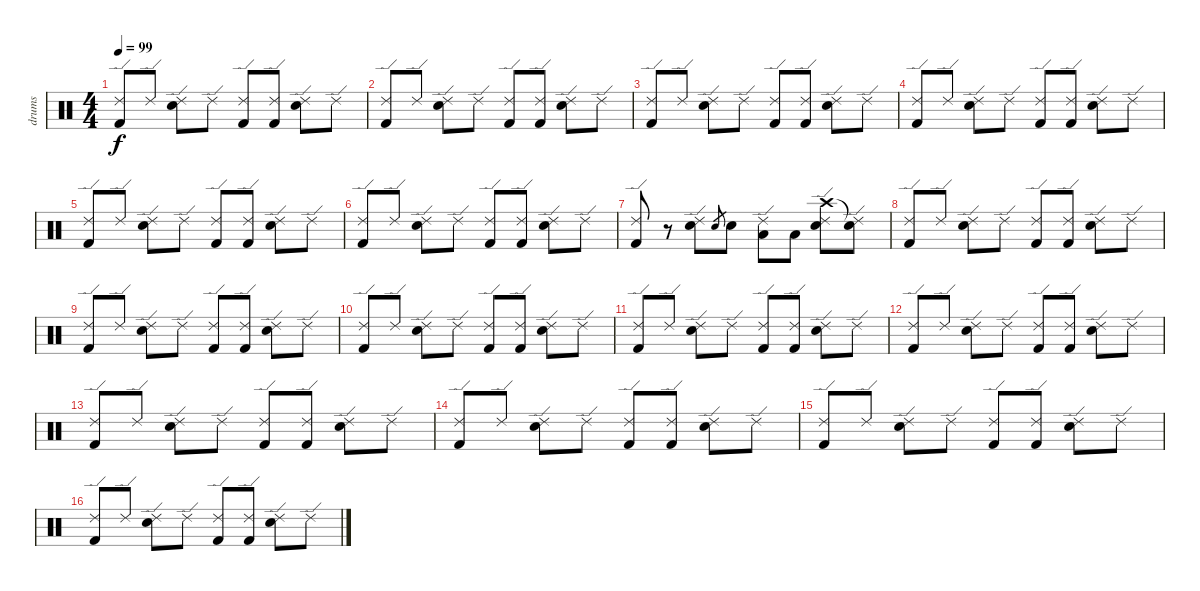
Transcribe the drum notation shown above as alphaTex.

\track ("drums" "drums") {instrument percussion}
\staff {score}
\articulation defaults
\ts (4 4)
\tempo 99
\clef neutral
\ks c
("Ride (edge) 2" "Kick (hit) 2").8{dy f} "Ride (edge) 2".8 ("Ride (edge) 2" "Snare (hit) 2").8 "Ride (edge) 2".8 ("Ride (edge) 2" "Kick (hit) 2").8 ("Ride (edge) 2" "Kick (hit) 2").8 ("Ride (edge) 2" "Snare (hit) 2").8 "Ride (edge) 2".8 |
("Ride (edge) 2" "Kick (hit) 2").8 "Ride (edge) 2".8 ("Ride (edge) 2" "Snare (hit) 2").8 "Ride (edge) 2".8 ("Ride (edge) 2" "Kick (hit) 2").8 ("Ride (edge) 2" "Kick (hit) 2").8 ("Ride (edge) 2" "Snare (hit) 2").8 "Ride (edge) 2".8 |
("Ride (edge) 2" "Kick (hit) 2").8 "Ride (edge) 2".8 ("Ride (edge) 2" "Snare (hit) 2").8 "Ride (edge) 2".8 ("Ride (edge) 2" "Kick (hit) 2").8 ("Ride (edge) 2" "Kick (hit) 2").8 ("Ride (edge) 2" "Snare (hit) 2").8 "Ride (edge) 2".8 |
("Ride (edge) 2" "Kick (hit) 2").8 "Ride (edge) 2".8 ("Ride (edge) 2" "Snare (hit) 2").8 "Ride (edge) 2".8 ("Ride (edge) 2" "Kick (hit) 2").8 ("Ride (edge) 2" "Kick (hit) 2").8 ("Ride (edge) 2" "Snare (hit) 2").8 "Ride (edge) 2".8 |
("Ride (edge) 2" "Kick (hit) 2").8 "Ride (edge) 2".8 ("Ride (edge) 2" "Snare (hit) 2").8 "Ride (edge) 2".8 ("Ride (edge) 2" "Kick (hit) 2").8 ("Ride (edge) 2" "Kick (hit) 2").8 ("Ride (edge) 2" "Snare (hit) 2").8 "Ride (edge) 2".8 |
("Ride (edge) 2" "Kick (hit) 2").8 "Ride (edge) 2".8 ("Ride (edge) 2" "Snare (hit) 2").8 "Ride (edge) 2".8 ("Ride (edge) 2" "Kick (hit) 2").8 ("Ride (edge) 2" "Kick (hit) 2").8 ("Ride (edge) 2" "Snare (hit) 2").8 "Ride (edge) 2".8 |
("Ride (edge) 2" "Kick (hit) 2").8 r.8 ("Ride (edge) 2" "Snare (hit) 2").8 "Snare (hit) 2".8{gr} "Snare (hit) 2".8 ("Ride (edge) 2" "Low Tom (hit)").8 "Low Floor Tom (hit)".8 ("Ride (edge) 2" "Crash high (hit)" "Snare (hit) 2").8 ("Ride (edge) 2" "Snare (hit)"{t}).8 |
("Ride (edge) 2" "Kick (hit) 2").8 "Ride (edge) 2".8 ("Ride (edge) 2" "Snare (hit) 2").8 "Ride (edge) 2".8 ("Ride (edge) 2" "Kick (hit) 2").8 ("Ride (edge) 2" "Kick (hit) 2").8 ("Ride (edge) 2" "Snare (hit) 2").8 "Ride (edge) 2".8 |
("Ride (edge) 2" "Kick (hit) 2").8 "Ride (edge) 2".8 ("Ride (edge) 2" "Snare (hit) 2").8 "Ride (edge) 2".8 ("Ride (edge) 2" "Kick (hit) 2").8 ("Ride (edge) 2" "Kick (hit) 2").8 ("Ride (edge) 2" "Snare (hit) 2").8 "Ride (edge) 2".8 |
("Ride (edge) 2" "Kick (hit) 2").8 "Ride (edge) 2".8 ("Ride (edge) 2" "Snare (hit) 2").8 "Ride (edge) 2".8 ("Ride (edge) 2" "Kick (hit) 2").8 ("Ride (edge) 2" "Kick (hit) 2").8 ("Ride (edge) 2" "Snare (hit) 2").8 "Ride (edge) 2".8 |
("Ride (edge) 2" "Kick (hit) 2").8 "Ride (edge) 2".8 ("Ride (edge) 2" "Snare (hit) 2").8 "Ride (edge) 2".8 ("Ride (edge) 2" "Kick (hit) 2").8 ("Ride (edge) 2" "Kick (hit) 2").8 ("Ride (edge) 2" "Snare (hit) 2").8 "Ride (edge) 2".8 |
("Ride (edge) 2" "Kick (hit) 2").8 "Ride (edge) 2".8 ("Ride (edge) 2" "Snare (hit) 2").8 "Ride (edge) 2".8 ("Ride (edge) 2" "Kick (hit) 2").8 ("Ride (edge) 2" "Kick (hit) 2").8 ("Ride (edge) 2" "Snare (hit) 2").8 "Ride (edge) 2".8 |
("Ride (edge) 2" "Kick (hit) 2").8 "Ride (edge) 2".8 ("Ride (edge) 2" "Snare (hit) 2").8 "Ride (edge) 2".8 ("Ride (edge) 2" "Kick (hit) 2").8 ("Ride (edge) 2" "Kick (hit) 2").8 ("Ride (edge) 2" "Snare (hit) 2").8 "Ride (edge) 2".8 |
("Ride (edge) 2" "Kick (hit) 2").8 "Ride (edge) 2".8 ("Ride (edge) 2" "Snare (hit) 2").8 "Ride (edge) 2".8 ("Ride (edge) 2" "Kick (hit) 2").8 ("Ride (edge) 2" "Kick (hit) 2").8 ("Ride (edge) 2" "Snare (hit) 2").8 "Ride (edge) 2".8 |
("Ride (edge) 2" "Kick (hit) 2").8 "Ride (edge) 2".8 ("Ride (edge) 2" "Snare (hit) 2").8 "Ride (edge) 2".8 ("Ride (edge) 2" "Kick (hit) 2").8 ("Ride (edge) 2" "Kick (hit) 2").8 ("Ride (edge) 2" "Snare (hit) 2").8 "Ride (edge) 2".8 |
("Ride (edge) 2" "Kick (hit) 2").8 "Ride (edge) 2".8 ("Ride (edge) 2" "Snare (hit) 2").8 "Ride (edge) 2".8 ("Ride (edge) 2" "Kick (hit) 2").8 ("Ride (edge) 2" "Kick (hit) 2").8 ("Ride (edge) 2" "Snare (hit) 2").8 "Ride (edge) 2".8
